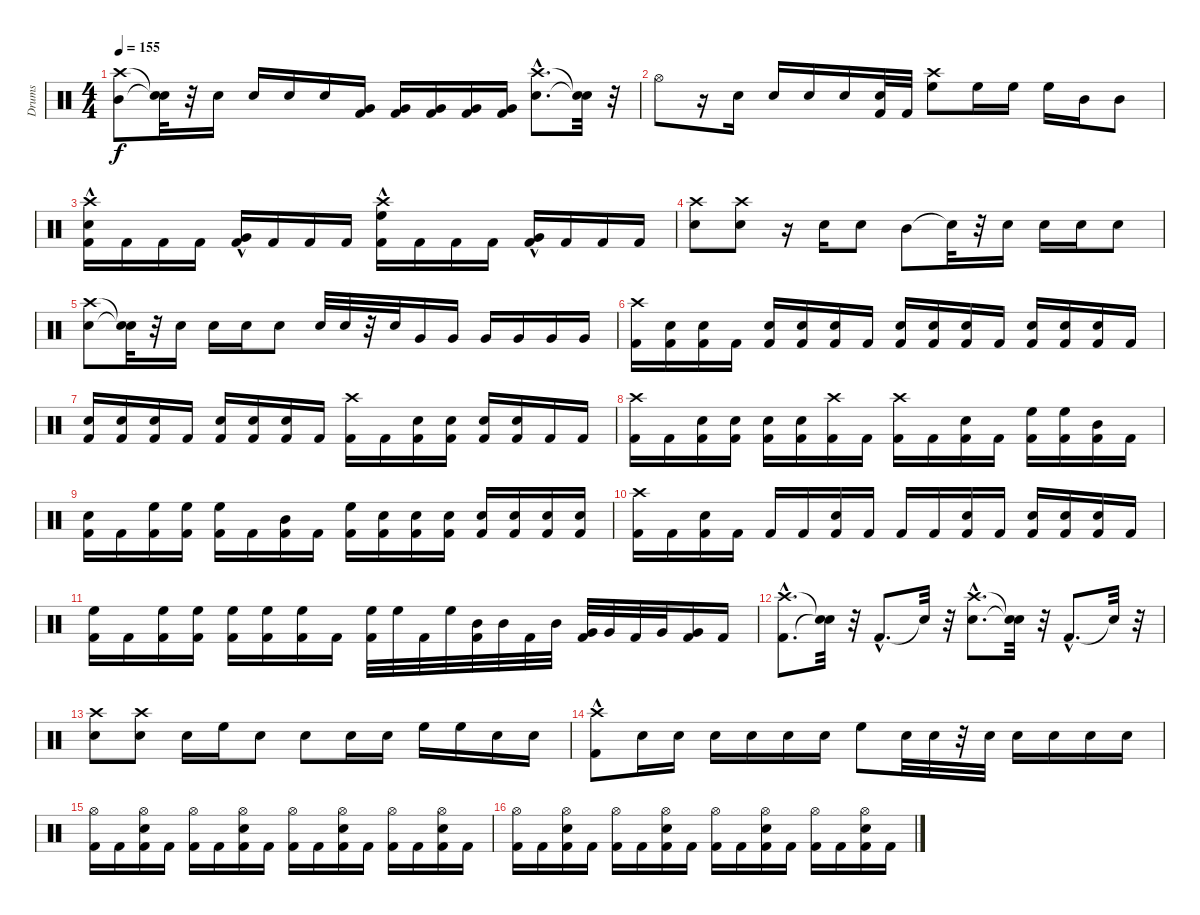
\track ("Drums" "Drums") {instrument percussion}
\staff {score}
\articulation defaults
\ts (4 4)
\tempo 155
\clef neutral
\ks c
("Mid Tom (hit)" "Crash high (hit)").8{dy f} ("Snare (hit)"{t} "Snare (hit)"{t}).32 r.32 "Snare (hit) 2".16 "Snare (hit) 2".16 "Snare (hit) 2".16 "Snare (hit) 2".16 ("Very Low Tom (hit)" "Kick (hit) 2").16 ("Very Low Tom (hit)" "Kick (hit) 2").16 ("Very Low Tom (hit)" "Kick (hit) 2").16 ("Very Low Tom (hit)" "Kick (hit) 2").16 ("Very Low Tom (hit)" "Kick (hit) 2").16 ("Snare (hit) 2"{hac} "Crash high (hit)"{hac}).8{d} ("Snare (hit)"{t} "Snare (hit)"{t}).32 r.32 |
"Hi-Hat (open)".8 r.16 "Snare (hit) 2".16 "Snare (hit) 2".16 "Snare (hit) 2".16 "Snare (hit) 2".16 ("Snare (hit) 2" "Kick (hit) 2").32 "Kick (hit) 2".32 ("High Floor Tom (hit)" "Crash high (hit)").8 "High Floor Tom (hit)".16 "High Floor Tom (hit)".16 "High Floor Tom (hit)".16 "Mid Tom (hit)".16 "Mid Tom (hit)".8 |
("Kick (hit) 2" "Crash high (hit)"{hac} "Snare (hit) 2"{hac}).16 "Kick (hit) 2".16 "Kick (hit) 2".16 "Kick (hit) 2".16 ("Kick (hit) 2" "Very Low Tom (hit)"{hac}).16 "Kick (hit) 2".16 "Kick (hit) 2".16 "Kick (hit) 2".16 ("Kick (hit) 2" "Crash high (hit)"{hac} "High Floor Tom (hit)"{hac}).16 "Kick (hit) 2".16 "Kick (hit) 2".16 "Kick (hit) 2".16 ("Kick (hit) 2" "Very Low Tom (hit)"{hac}).16 "Kick (hit) 2".16 "Kick (hit) 2".16 "Kick (hit) 2".16 |
("Crash high (hit)" "Snare (hit) 2").8 ("Crash high (hit)" "Snare (hit) 2").8 r.16 "Snare (hit) 2".16 "Snare (hit) 2".8 "Mid Tom (hit)".8 "Snare (hit)"{t}.32 r.32 "Snare (hit) 2".16 "Snare (hit) 2".16 "Snare (hit) 2".16 "Snare (hit) 2".8 |
("Crash high (hit)" "Snare (hit) 2").8 ("Snare (hit)"{t} "Snare (hit)"{t}).32 r.32 "Snare (hit) 2".16 "Snare (hit) 2".16 "Snare (hit) 2".16 "Snare (hit) 2".8 "Snare (hit) 2".32 "Snare (hit) 2".32 r.32 "Snare (hit) 2".32 "Very Low Tom (hit)".16 "Very Low Tom (hit)".16 "Very Low Tom (hit)".16 "Very Low Tom (hit)".16 "Very Low Tom (hit)".16 "Very Low Tom (hit)".16 |
("Kick (hit) 2" "Crash high (hit)").16 ("Kick (hit) 2" "Snare (hit) 2").16 ("Kick (hit) 2" "Snare (hit) 2").16 "Kick (hit) 2".16 ("Kick (hit) 2" "Snare (hit) 2").16 ("Kick (hit) 2" "Snare (hit) 2").16 ("Kick (hit) 2" "Snare (hit) 2").16 "Kick (hit) 2".16 ("Kick (hit) 2" "Snare (hit) 2").16 ("Kick (hit) 2" "Snare (hit) 2").16 ("Kick (hit) 2" "Snare (hit) 2").16 "Kick (hit) 2".16 ("Kick (hit) 2" "Snare (hit) 2").16 ("Kick (hit) 2" "Snare (hit) 2").16 ("Kick (hit) 2" "Snare (hit) 2").16 "Kick (hit) 2".16 |
("Kick (hit) 2" "Snare (hit) 2").16 ("Kick (hit) 2" "Snare (hit) 2").16 ("Kick (hit) 2" "Snare (hit) 2").16 "Kick (hit) 2".16 ("Kick (hit) 2" "Snare (hit) 2").16 ("Kick (hit) 2" "Snare (hit) 2").16 ("Kick (hit) 2" "Snare (hit) 2").16 "Kick (hit) 2".16 ("Kick (hit) 2" "Crash high (hit)").16 "Kick (hit) 2".16 ("Kick (hit) 2" "Snare (hit) 2").16 ("Kick (hit) 2" "Snare (hit) 2").16 ("Kick (hit) 2" "Snare (hit) 2").16 ("Kick (hit) 2" "Snare (hit) 2").16 "Kick (hit) 2".16 "Kick (hit) 2".16 |
("Kick (hit) 2" "Crash high (hit)").16 "Kick (hit) 2".16 ("Kick (hit) 2" "Snare (hit) 2").16 ("Kick (hit) 2" "Snare (hit) 2").16 ("Kick (hit) 2" "Snare (hit) 2").16 ("Kick (hit) 2" "Snare (hit) 2").16 ("Kick (hit) 2" "Crash high (hit)").16 "Kick (hit) 2".16 ("Crash high (hit)" "Kick (hit) 2").16 "Kick (hit) 2".16 ("Snare (hit) 2" "Kick (hit) 2").16 "Kick (hit) 2".16 ("High Floor Tom (hit)" "Kick (hit) 2").16 ("High Floor Tom (hit)" "Kick (hit) 2").16 ("Mid Tom (hit)" "Kick (hit) 2").16 "Kick (hit) 2".16 |
("Kick (hit) 2" "Snare (hit) 2").16 "Kick (hit) 2".16 ("Kick (hit) 2" "High Floor Tom (hit)").16 ("Kick (hit) 2" "High Floor Tom (hit)").16 ("Kick (hit) 2" "High Floor Tom (hit)").16 "Kick (hit) 2".16 ("Kick (hit) 2" "Mid Tom (hit)").16 "Kick (hit) 2".16 ("Kick (hit) 2" "High Floor Tom (hit)").16 ("Kick (hit) 2" "Snare (hit) 2").16 ("Kick (hit) 2" "Snare (hit) 2").16 ("Kick (hit) 2" "Snare (hit) 2").16 ("Kick (hit) 2" "Snare (hit) 2").16 ("Kick (hit) 2" "Snare (hit) 2").16 ("Kick (hit) 2" "Snare (hit) 2").16 ("Kick (hit) 2" "Snare (hit) 2").16 |
("Kick (hit) 2" "Crash high (hit)").16 "Kick (hit) 2".16 ("Kick (hit) 2" "Snare (hit) 2").16 "Kick (hit) 2".16 "Kick (hit) 2".16 "Kick (hit) 2".16 ("Kick (hit) 2" "Snare (hit) 2").16 "Kick (hit) 2".16 "Kick (hit) 2".16 "Kick (hit) 2".16 ("Kick (hit) 2" "Snare (hit) 2").16 "Kick (hit) 2".16 ("Kick (hit) 2" "Snare (hit) 2").16 ("Kick (hit) 2" "Snare (hit) 2").16 ("Kick (hit) 2" "Snare (hit) 2").16 "Kick (hit) 2".16 |
("Kick (hit) 2" "High Floor Tom (hit)").16 "Kick (hit) 2".16 ("Kick (hit) 2" "High Floor Tom (hit)").16 ("Kick (hit) 2" "High Floor Tom (hit)").16 ("Kick (hit) 2" "High Floor Tom (hit)").16 ("Kick (hit) 2" "High Floor Tom (hit)").16 ("Kick (hit) 2" "High Floor Tom (hit)").16 "Kick (hit) 2".16 ("Kick (hit) 2" "High Floor Tom (hit)").32 "High Floor Tom (hit)".32 "Kick (hit) 2".32 "High Floor Tom (hit)".32 ("Kick (hit) 2" "Mid Tom (hit)").32 "Mid Tom (hit)".32 "Kick (hit) 2".32 "Mid Tom (hit)".32 ("Kick (hit) 2" "Very Low Tom (hit)").32 "Very Low Tom (hit)".32 "Kick (hit) 2".32 "Very Low Tom (hit)".32 ("Kick (hit) 2" "Very Low Tom (hit)").16 "Kick (hit) 2".16 |
("Kick (hit) 2"{hac} "Crash high (hit)"{hac}).8{d} ("Snare (hit)"{t} "Snare (hit)"{t}).32 r.32 "Kick (hit) 2"{hac}.8{d} "Snare (hit)"{t}.32 r.32 ("Snare (hit) 2"{hac} "Crash high (hit)"{hac}).8{d} ("Snare (hit)"{t} "Snare (hit)"{t}).32 r.32 "Kick (hit) 2"{hac}.8{d} "Snare (hit)"{t}.32 r.32 |
("Snare (hit) 2" "Crash high (hit)").8 ("Snare (hit) 2" "Crash high (hit)").8 "Snare (hit) 2".16 "High Floor Tom (hit)".16 "Snare (hit) 2".8 "Snare (hit) 2".8 "Snare (hit) 2".16 "Snare (hit) 2".16 "High Floor Tom (hit)".16 "High Floor Tom (hit)".16 "Snare (hit) 2".16 "Snare (hit) 2".16 |
("Kick (hit) 2"{hac} "Crash high (hit)").8 "Snare (hit) 2".16 "Snare (hit) 2".16 "Snare (hit) 2".16 "Snare (hit) 2".16 "Snare (hit) 2".16 "Snare (hit) 2".16 "High Floor Tom (hit)".8 "Snare (hit) 2".32 "Snare (hit) 2".32 r.32 "Snare (hit) 2".32 "Snare (hit) 2".16 "Snare (hit) 2".16 "Snare (hit) 2".16 "Snare (hit) 2".16 |
("Kick (hit) 2" "Hi-Hat (open)").16 "Kick (hit) 2".16 ("Kick (hit) 2" "Snare (hit) 2" "Hi-Hat (open)").16 "Kick (hit) 2".16 ("Kick (hit) 2" "Hi-Hat (open)").16 "Kick (hit) 2".16 ("Kick (hit) 2" "Snare (hit) 2" "Hi-Hat (open)").16 "Kick (hit) 2".16 ("Kick (hit) 2" "Hi-Hat (open)").16 "Kick (hit) 2".16 ("Kick (hit) 2" "Snare (hit) 2" "Hi-Hat (open)").16 "Kick (hit) 2".16 ("Kick (hit) 2" "Hi-Hat (open)").16 "Kick (hit) 2".16 ("Kick (hit) 2" "Snare (hit) 2" "Hi-Hat (open)").16 "Kick (hit) 2".16 |
("Kick (hit) 2" "Hi-Hat (open)").16 "Kick (hit) 2".16 ("Kick (hit) 2" "Snare (hit) 2" "Hi-Hat (open)").16 "Kick (hit) 2".16 ("Kick (hit) 2" "Hi-Hat (open)").16 "Kick (hit) 2".16 ("Kick (hit) 2" "Snare (hit) 2" "Hi-Hat (open)").16 "Kick (hit) 2".16 ("Kick (hit) 2" "Hi-Hat (open)").16 "Kick (hit) 2".16 ("Kick (hit) 2" "Snare (hit) 2" "Hi-Hat (open)").16 "Kick (hit) 2".16 ("Kick (hit) 2" "Hi-Hat (open)").16 "Kick (hit) 2".16 ("Kick (hit) 2" "Snare (hit) 2" "Hi-Hat (open)").16 "Kick (hit) 2".16
